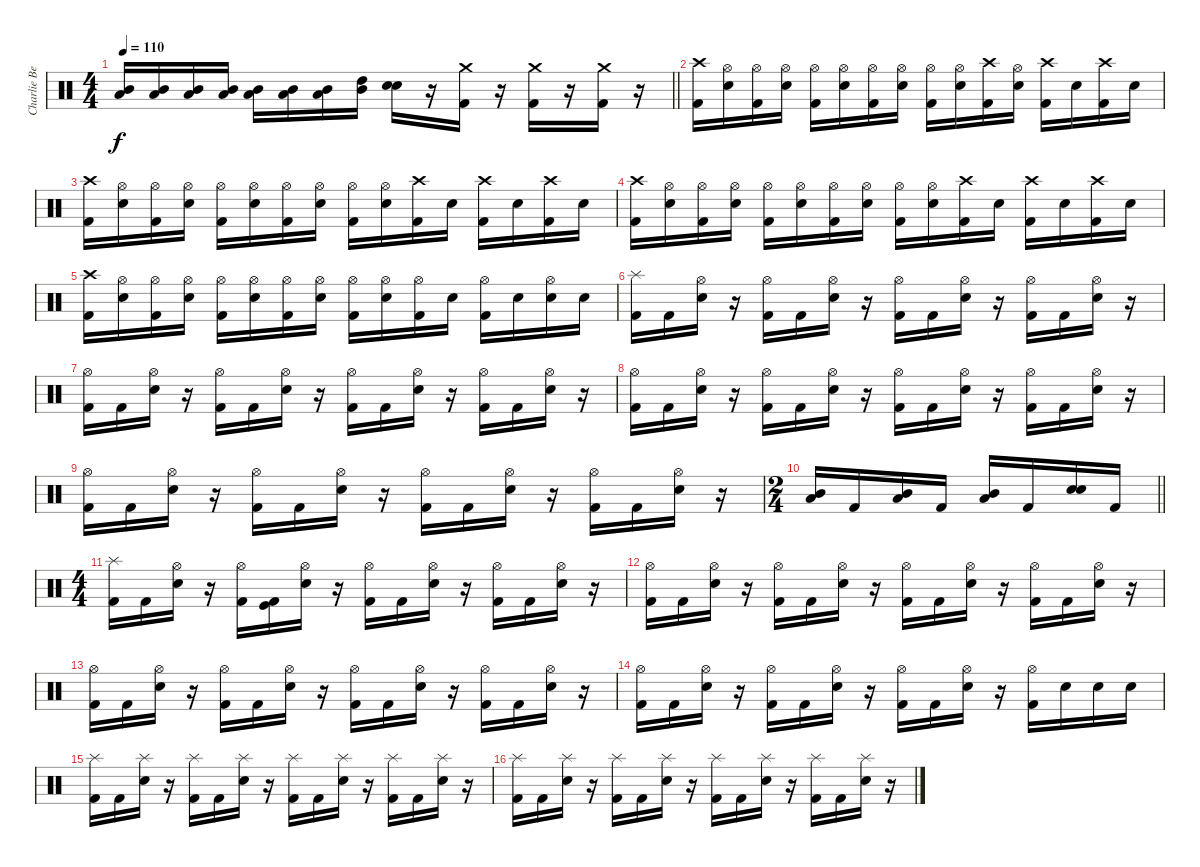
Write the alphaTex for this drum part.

\track ("Charlie Benante" "Charlie Be") {instrument percussion}
\staff {score}
\articulation defaults
\ts (4 4)
\tempo 110
\clef neutral
\barLineRight lightlight
\ks c
("Low Tom (hit)" "Mid Tom (hit)").16{dy f} ("Low Tom (hit)" "Mid Tom (hit)").16 ("Low Tom (hit)" "Mid Tom (hit)").16 ("Low Tom (hit)" "Mid Tom (hit)").16 ("Low Tom (hit)" "Mid Tom (hit)").16 ("Low Tom (hit)" "Mid Tom (hit)").16 ("Low Tom (hit)" "Mid Tom (hit)").16 ("Mid Tom (hit)" "High Tom (hit)").16 ("Electric Snare (hit)" "Snare (hit) 2").16 r.16 ("Crash medium (hit)" "Kick (hit) 2").16 r.16 ("Crash medium (hit)" "Kick (hit) 2").16 r.16 ("Crash medium (hit)" "Kick (hit) 2").16 r.16 |
("Crash high (hit)" "Kick (hit) 2").16 ("Hi-Hat (open)" "Electric Snare (hit)").16 ("Hi-Hat (open)" "Kick (hit) 2").16 ("Hi-Hat (open)" "Electric Snare (hit)").16 ("Hi-Hat (open)" "Kick (hit) 2").16 ("Hi-Hat (open)" "Electric Snare (hit)").16 ("Hi-Hat (open)" "Kick (hit) 2").16 ("Hi-Hat (open)" "Electric Snare (hit)").16 ("Hi-Hat (open)" "Kick (hit) 2").16 ("Hi-Hat (open)" "Electric Snare (hit)").16 ("Crash high (hit)" "Kick (hit) 2").16 ("Hi-Hat (open)" "Electric Snare (hit)").16 ("Crash high (hit)" "Kick (hit) 2").16 "Electric Snare (hit)".16 ("Crash high (hit)" "Kick (hit) 2").16 "Electric Snare (hit)".16 |
("Crash high (hit)" "Kick (hit) 2").16 ("Hi-Hat (open)" "Electric Snare (hit)").16 ("Hi-Hat (open)" "Kick (hit) 2").16 ("Hi-Hat (open)" "Electric Snare (hit)").16 ("Hi-Hat (open)" "Kick (hit) 2").16 ("Hi-Hat (open)" "Electric Snare (hit)").16 ("Hi-Hat (open)" "Kick (hit) 2").16 ("Hi-Hat (open)" "Electric Snare (hit)").16 ("Hi-Hat (open)" "Kick (hit) 2").16 ("Hi-Hat (open)" "Electric Snare (hit)").16 ("Crash high (hit)" "Kick (hit) 2").16 "Electric Snare (hit)".16 ("Crash high (hit)" "Kick (hit) 2").16 "Electric Snare (hit)".16 ("Crash high (hit)" "Kick (hit) 2").16 "Electric Snare (hit)".16 |
("Crash high (hit)" "Kick (hit) 2").16 ("Hi-Hat (open)" "Electric Snare (hit)").16 ("Hi-Hat (open)" "Kick (hit) 2").16 ("Hi-Hat (open)" "Electric Snare (hit)").16 ("Hi-Hat (open)" "Kick (hit) 2").16 ("Hi-Hat (open)" "Electric Snare (hit)").16 ("Hi-Hat (open)" "Kick (hit) 2").16 ("Hi-Hat (open)" "Electric Snare (hit)").16 ("Hi-Hat (open)" "Kick (hit) 2").16 ("Hi-Hat (open)" "Electric Snare (hit)").16 ("Crash high (hit)" "Kick (hit) 2").16 "Electric Snare (hit)".16 ("Crash high (hit)" "Kick (hit) 2").16 "Electric Snare (hit)".16 ("Crash high (hit)" "Kick (hit) 2").16 "Electric Snare (hit)".16 |
("Crash high (hit)" "Kick (hit) 2").16 ("Hi-Hat (open)" "Electric Snare (hit)").16 ("Hi-Hat (open)" "Kick (hit) 2").16 ("Hi-Hat (open)" "Electric Snare (hit)").16 ("Hi-Hat (open)" "Kick (hit) 2").16 ("Hi-Hat (open)" "Electric Snare (hit)").16 ("Hi-Hat (open)" "Kick (hit) 2").16 ("Hi-Hat (open)" "Electric Snare (hit)").16 ("Hi-Hat (open)" "Kick (hit) 2").16 ("Hi-Hat (open)" "Electric Snare (hit)").16 ("Hi-Hat (open)" "Kick (hit) 2").16 "Electric Snare (hit)".16 ("Hi-Hat (open)" "Kick (hit) 2").16 "Electric Snare (hit)".16 ("Hi-Hat (open)" "Electric Snare (hit)").16 "Electric Snare (hit)".16 |
("Splash (hit)" "Kick (hit) 2").16 "Kick (hit) 2".16 ("Hi-Hat (open)" "Electric Snare (hit)").16 r.16 ("Hi-Hat (open)" "Kick (hit) 2").16 "Kick (hit) 2".16 ("Hi-Hat (open)" "Electric Snare (hit)").16 r.16 ("Hi-Hat (open)" "Kick (hit) 2").16 "Kick (hit) 2".16 ("Hi-Hat (open)" "Electric Snare (hit)").16 r.16 ("Hi-Hat (open)" "Kick (hit) 2").16 "Kick (hit) 2".16 ("Hi-Hat (open)" "Electric Snare (hit)").16 r.16 |
("Hi-Hat (open)" "Kick (hit) 2").16 "Kick (hit) 2".16 ("Hi-Hat (open)" "Electric Snare (hit)").16 r.16 ("Hi-Hat (open)" "Kick (hit) 2").16 "Kick (hit) 2".16 ("Hi-Hat (open)" "Electric Snare (hit)").16 r.16 ("Hi-Hat (open)" "Kick (hit) 2").16 "Kick (hit) 2".16 ("Hi-Hat (open)" "Electric Snare (hit)").16 r.16 ("Hi-Hat (open)" "Kick (hit) 2").16 "Kick (hit) 2".16 ("Hi-Hat (open)" "Electric Snare (hit)").16 r.16 |
("Hi-Hat (open)" "Kick (hit) 2").16 "Kick (hit) 2".16 ("Hi-Hat (open)" "Electric Snare (hit)").16 r.16 ("Hi-Hat (open)" "Kick (hit) 2").16 "Kick (hit) 2".16 ("Hi-Hat (open)" "Electric Snare (hit)").16 r.16 ("Hi-Hat (open)" "Kick (hit) 2").16 "Kick (hit) 2".16 ("Hi-Hat (open)" "Electric Snare (hit)").16 r.16 ("Hi-Hat (open)" "Kick (hit) 2").16 "Kick (hit) 2".16 ("Hi-Hat (open)" "Electric Snare (hit)").16 r.16 |
("Hi-Hat (open)" "Kick (hit) 2").16 "Kick (hit) 2".16 ("Hi-Hat (open)" "Electric Snare (hit)").16 r.16 ("Hi-Hat (open)" "Kick (hit) 2").16 "Kick (hit) 2".16 ("Hi-Hat (open)" "Electric Snare (hit)").16 r.16 ("Hi-Hat (open)" "Kick (hit) 2").16 "Kick (hit) 2".16 ("Hi-Hat (open)" "Electric Snare (hit)").16 r.16 ("Hi-Hat (open)" "Kick (hit) 2").16 "Kick (hit) 2".16 ("Hi-Hat (open)" "Electric Snare (hit)").16 r.16 |
\ts (2 4)
\barLineRight lightlight
("Low Tom (hit)" "Mid Tom (hit)").16 "Kick (hit) 2".16 ("Low Tom (hit)" "Mid Tom (hit)").16 "Kick (hit) 2".16 ("Low Tom (hit)" "Mid Tom (hit)").16 "Kick (hit) 2".16 ("Snare (hit) 2" "Electric Snare (hit)").16 "Kick (hit) 2".16 |
\ts (4 4)
("Splash (hit)" "Kick (hit) 2").16 "Kick (hit) 2".16 ("Hi-Hat (open)" "Electric Snare (hit)").16 r.16 ("Hi-Hat (open)" "Kick (hit) 2").16 ("Kick (hit)" "Kick (hit) 2").16 ("Hi-Hat (open)" "Electric Snare (hit)").16 r.16 ("Hi-Hat (open)" "Kick (hit) 2").16 "Kick (hit) 2".16 ("Hi-Hat (open)" "Electric Snare (hit)").16 r.16 ("Hi-Hat (open)" "Kick (hit) 2").16 "Kick (hit) 2".16 ("Hi-Hat (open)" "Electric Snare (hit)").16 r.16 |
("Hi-Hat (open)" "Kick (hit) 2").16 "Kick (hit) 2".16 ("Hi-Hat (open)" "Electric Snare (hit)").16 r.16 ("Hi-Hat (open)" "Kick (hit) 2").16 "Kick (hit) 2".16 ("Hi-Hat (open)" "Electric Snare (hit)").16 r.16 ("Hi-Hat (open)" "Kick (hit) 2").16 "Kick (hit) 2".16 ("Hi-Hat (open)" "Electric Snare (hit)").16 r.16 ("Hi-Hat (open)" "Kick (hit) 2").16 "Kick (hit) 2".16 ("Hi-Hat (open)" "Electric Snare (hit)").16 r.16 |
("Hi-Hat (open)" "Kick (hit) 2").16 "Kick (hit) 2".16 ("Hi-Hat (open)" "Electric Snare (hit)").16 r.16 ("Hi-Hat (open)" "Kick (hit) 2").16 "Kick (hit) 2".16 ("Hi-Hat (open)" "Electric Snare (hit)").16 r.16 ("Hi-Hat (open)" "Kick (hit) 2").16 "Kick (hit) 2".16 ("Hi-Hat (open)" "Electric Snare (hit)").16 r.16 ("Hi-Hat (open)" "Kick (hit) 2").16 "Kick (hit) 2".16 ("Hi-Hat (open)" "Electric Snare (hit)").16 r.16 |
("Hi-Hat (open)" "Kick (hit) 2").16 "Kick (hit) 2".16 ("Hi-Hat (open)" "Electric Snare (hit)").16 r.16 ("Hi-Hat (open)" "Kick (hit) 2").16 "Kick (hit) 2".16 ("Hi-Hat (open)" "Electric Snare (hit)").16 r.16 ("Hi-Hat (open)" "Kick (hit) 2").16 "Kick (hit) 2".16 ("Hi-Hat (open)" "Electric Snare (hit)").16 r.16 ("Hi-Hat (open)" "Kick (hit) 2").16 "Electric Snare (hit)".16 "Snare (hit) 2".16 "Electric Snare (hit)".16 |
("Splash (hit)" "Kick (hit) 2").16 "Kick (hit) 2".16 ("Splash (hit)" "Electric Snare (hit)").16 r.16 ("Splash (hit)" "Kick (hit) 2").16 "Kick (hit) 2".16 ("Splash (hit)" "Electric Snare (hit)").16 r.16 ("Splash (hit)" "Kick (hit) 2").16 "Kick (hit) 2".16 ("Splash (hit)" "Electric Snare (hit)").16 r.16 ("Splash (hit)" "Kick (hit) 2").16 "Kick (hit) 2".16 ("Splash (hit)" "Electric Snare (hit)").16 r.16 |
("Splash (hit)" "Kick (hit) 2").16 "Kick (hit) 2".16 ("Splash (hit)" "Electric Snare (hit)").16 r.16 ("Splash (hit)" "Kick (hit) 2").16 "Kick (hit) 2".16 ("Splash (hit)" "Electric Snare (hit)").16 r.16 ("Splash (hit)" "Kick (hit) 2").16 "Kick (hit) 2".16 ("Splash (hit)" "Electric Snare (hit)").16 r.16 ("Splash (hit)" "Kick (hit) 2").16 "Kick (hit) 2".16 ("Splash (hit)" "Electric Snare (hit)").16 r.16
